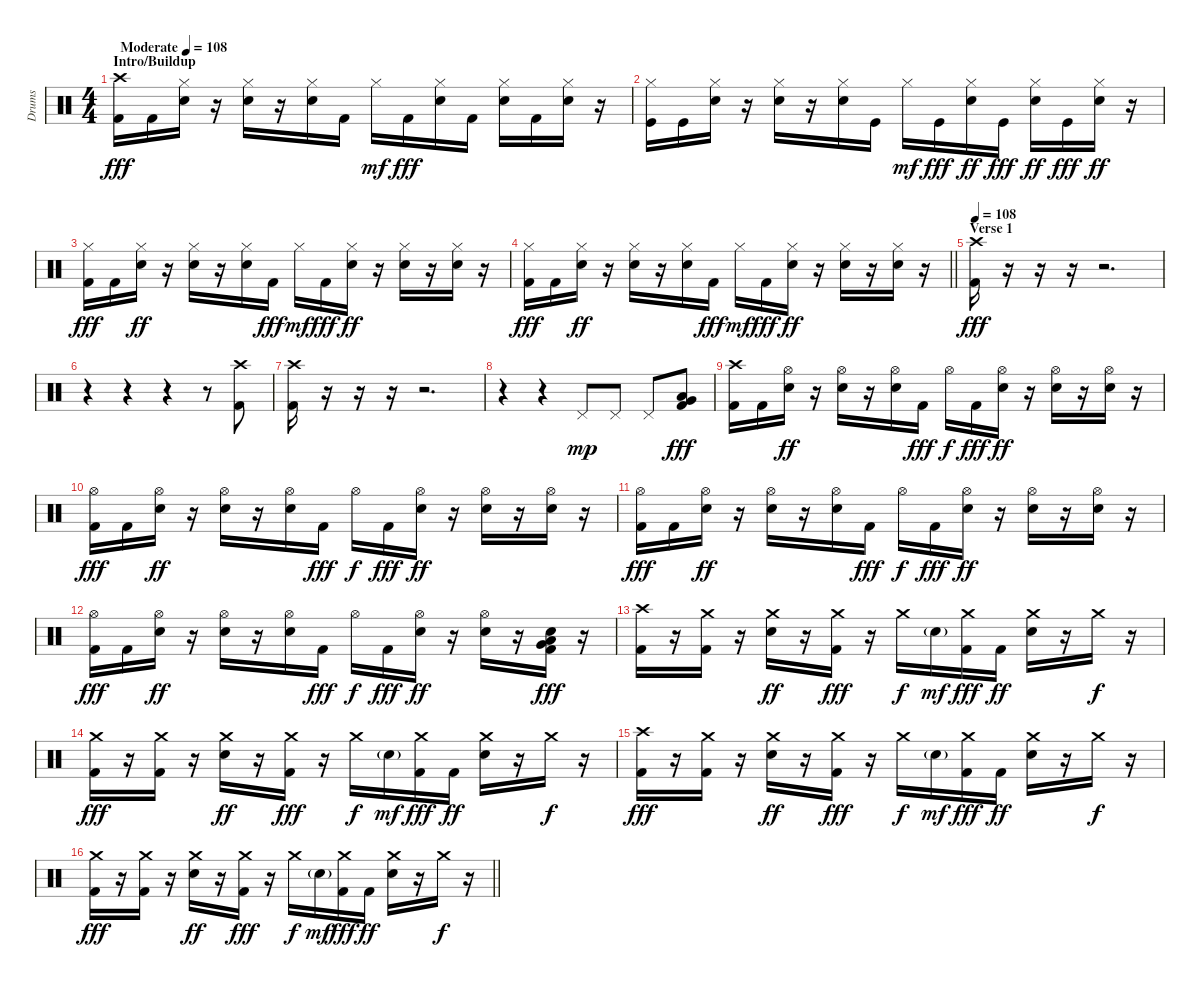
\track ("Drums" "Drums") {instrument percussion}
\staff {score}
\articulation defaults
\ts (4 4)
\section ("" "Intro/Buildup")
\tempo (108 "Moderate")
\tempo 104
\tempo (108 "Moderate")
\clef neutral
\ks c
("Crash high (hit)" "Kick (hit) 2").16{dy fff volume 12} "Kick (hit) 2".16 ("Hi-Hat (closed)" "Electric Snare (hit)").16 r.16 ("Hi-Hat (closed)" "Electric Snare (hit)").16 r.16 ("Hi-Hat (closed)" "Electric Snare (hit)").16 "Kick (hit) 2".16 "Hi-Hat (closed)".16{dy mf} "Kick (hit) 2".16{dy fff} ("Hi-Hat (closed)" "Electric Snare (hit)").16 "Kick (hit) 2".16 ("Hi-Hat (closed)" "Electric Snare (hit)").16 "Kick (hit) 2".16 ("Hi-Hat (closed)" "Electric Snare (hit)").16 r.16 |
("Hi-Hat (closed)" "Kick (hit)").16 "Kick (hit)".16 ("Hi-Hat (closed)" "Electric Snare (hit)").16 r.16 ("Hi-Hat (closed)" "Electric Snare (hit)").16 r.16 ("Hi-Hat (closed)" "Electric Snare (hit)").16 "Kick (hit)".16 "Hi-Hat (closed)".16{dy mf} "Kick (hit)".16{dy fff} ("Hi-Hat (closed)" "Electric Snare (hit)").16{dy ff} "Kick (hit)".16{dy fff} ("Hi-Hat (closed)" "Electric Snare (hit)").16{dy ff} "Kick (hit)".16{dy fff} ("Hi-Hat (closed)" "Electric Snare (hit)").16{dy ff} r.16 |
("Hi-Hat (closed)" "Kick (hit) 2").16{dy fff} "Kick (hit) 2".16 ("Hi-Hat (closed)" "Electric Snare (hit)").16{dy ff} r.16 ("Hi-Hat (closed)" "Electric Snare (hit)").16 r.16 ("Hi-Hat (closed)" "Electric Snare (hit)").16 "Kick (hit) 2".16{dy fff} "Hi-Hat (closed)".16{dy mf} "Kick (hit) 2".16{dy fff} ("Hi-Hat (closed)" "Electric Snare (hit)").16{dy ff} r.16 ("Hi-Hat (closed)" "Electric Snare (hit)").16 r.16 ("Hi-Hat (closed)" "Electric Snare (hit)").16 r.16 |
\barLineRight lightlight
("Hi-Hat (closed)" "Kick (hit) 2").16{dy fff} "Kick (hit) 2".16 ("Hi-Hat (closed)" "Electric Snare (hit)").16{dy ff} r.16 ("Hi-Hat (closed)" "Electric Snare (hit)").16 r.16 ("Hi-Hat (closed)" "Electric Snare (hit)").16 "Kick (hit) 2".16{dy fff} "Hi-Hat (closed)".16{dy mf} "Kick (hit) 2".16{dy fff} ("Hi-Hat (closed)" "Electric Snare (hit)").16{dy ff} r.16 ("Hi-Hat (closed)" "Electric Snare (hit)").16 r.16 ("Hi-Hat (closed)" "Electric Snare (hit)").16 r.16 |
\section ("" "Verse 1")
\tempo 108
("Crash high (hit)" "Kick (hit) 2").16{dy fff volume 16} r.16 r.16 r.16 r.2{d} |
r.4 r.4 r.4 r.8 ("Crash high (hit)" "Kick (hit) 2").8 |
("Crash high (hit)" "Kick (hit) 2").16 r.16 r.16 r.16 r.2{d} |
r.4 r.4 "Pedal Hi-Hat (hit)".8{dy mp} "Pedal Hi-Hat (hit)".8 "Pedal Hi-Hat (hit)".8 ("Low Tom (hit)" "Very Low Tom (hit)" "Kick (hit) 2").8{dy fff} |
("Crash high (hit)" "Kick (hit) 2").16 "Kick (hit) 2".16 ("Hi-Hat (open)" "Electric Snare (hit)").16{dy ff} r.16 ("Hi-Hat (open)" "Electric Snare (hit)").16 r.16 ("Hi-Hat (open)" "Electric Snare (hit)").16 "Kick (hit) 2".16{dy fff} "Hi-Hat (open)".16{dy f} "Kick (hit) 2".16{dy fff} ("Hi-Hat (open)" "Electric Snare (hit)").16{dy ff} r.16 ("Hi-Hat (open)" "Electric Snare (hit)").16 r.16 ("Hi-Hat (open)" "Electric Snare (hit)").16 r.16 |
("Hi-Hat (open)" "Kick (hit) 2").16{dy fff} "Kick (hit) 2".16 ("Hi-Hat (open)" "Electric Snare (hit)").16{dy ff} r.16 ("Hi-Hat (open)" "Electric Snare (hit)").16 r.16 ("Hi-Hat (open)" "Electric Snare (hit)").16 "Kick (hit) 2".16{dy fff} "Hi-Hat (open)".16{dy f} "Kick (hit) 2".16{dy fff} ("Hi-Hat (open)" "Electric Snare (hit)").16{dy ff} r.16 ("Hi-Hat (open)" "Electric Snare (hit)").16 r.16 ("Hi-Hat (open)" "Electric Snare (hit)").16 r.16 |
("Hi-Hat (open)" "Kick (hit) 2").16{dy fff} "Kick (hit) 2".16 ("Hi-Hat (open)" "Electric Snare (hit)").16{dy ff} r.16 ("Hi-Hat (open)" "Electric Snare (hit)").16 r.16 ("Hi-Hat (open)" "Electric Snare (hit)").16 "Kick (hit) 2".16{dy fff} "Hi-Hat (open)".16{dy f} "Kick (hit) 2".16{dy fff} ("Hi-Hat (open)" "Electric Snare (hit)").16{dy ff} r.16 ("Hi-Hat (open)" "Electric Snare (hit)").16 r.16 ("Hi-Hat (open)" "Electric Snare (hit)").16 r.16 |
("Hi-Hat (open)" "Kick (hit) 2").16{dy fff} "Kick (hit) 2".16 ("Hi-Hat (open)" "Electric Snare (hit)").16{dy ff} r.16 ("Hi-Hat (open)" "Electric Snare (hit)").16 r.16 ("Hi-Hat (open)" "Electric Snare (hit)").16 "Kick (hit) 2".16{dy fff} "Hi-Hat (open)".16{dy f} "Kick (hit) 2".16{dy fff} ("Hi-Hat (open)" "Electric Snare (hit)").16{dy ff} r.16 ("Hi-Hat (open)" "Electric Snare (hit)").16 r.16 ("Electric Snare (hit)" "Low Tom (hit)" "Very Low Tom (hit)" "Kick (hit) 2").16{dy fff} r.16 |
("Crash high (hit)" "Kick (hit) 2").16 r.16 ("Crash medium (hit)" "Kick (hit) 2").16 r.16 ("Crash medium (hit)" "Electric Snare (hit)").16{dy ff} r.16 ("Crash medium (hit)" "Kick (hit) 2").16{dy fff} r.16 "Crash medium (hit)".16{dy f} "Electric Snare (hit)"{g}.16{dy mf} ("Crash medium (hit)" "Kick (hit) 2").16{dy fff} "Kick (hit) 2".16{dy ff} ("Crash medium (hit)" "Electric Snare (hit)").16 r.16 "Crash medium (hit)".16{dy f} r.16 |
("Crash medium (hit)" "Kick (hit) 2").16{dy fff} r.16 ("Crash medium (hit)" "Kick (hit) 2").16 r.16 ("Crash medium (hit)" "Electric Snare (hit)").16{dy ff} r.16 ("Crash medium (hit)" "Kick (hit) 2").16{dy fff} r.16 "Crash medium (hit)".16{dy f} "Electric Snare (hit)"{g}.16{dy mf} ("Crash medium (hit)" "Kick (hit) 2").16{dy fff} "Kick (hit) 2".16{dy ff} ("Crash medium (hit)" "Electric Snare (hit)").16 r.16 "Crash medium (hit)".16{dy f} r.16 |
("Crash high (hit)" "Kick (hit) 2").16{dy fff} r.16 ("Crash medium (hit)" "Kick (hit) 2").16 r.16 ("Crash medium (hit)" "Electric Snare (hit)").16{dy ff} r.16 ("Crash medium (hit)" "Kick (hit) 2").16{dy fff} r.16 "Crash medium (hit)".16{dy f} "Electric Snare (hit)"{g}.16{dy mf} ("Crash medium (hit)" "Kick (hit) 2").16{dy fff} "Kick (hit) 2".16{dy ff} ("Crash medium (hit)" "Electric Snare (hit)").16 r.16 "Crash medium (hit)".16{dy f} r.16 |
\barLineRight lightlight
("Crash medium (hit)" "Kick (hit) 2").16{dy fff} r.16 ("Crash medium (hit)" "Kick (hit) 2").16 r.16 ("Crash medium (hit)" "Electric Snare (hit)").16{dy ff} r.16 ("Crash medium (hit)" "Kick (hit) 2").16{dy fff} r.16 "Crash medium (hit)".16{dy f} "Electric Snare (hit)"{g}.16{dy mf} ("Crash medium (hit)" "Kick (hit) 2").16{dy fff} "Kick (hit) 2".16{dy ff} ("Crash medium (hit)" "Electric Snare (hit)").16 r.16 "Crash medium (hit)".16{dy f} r.16
